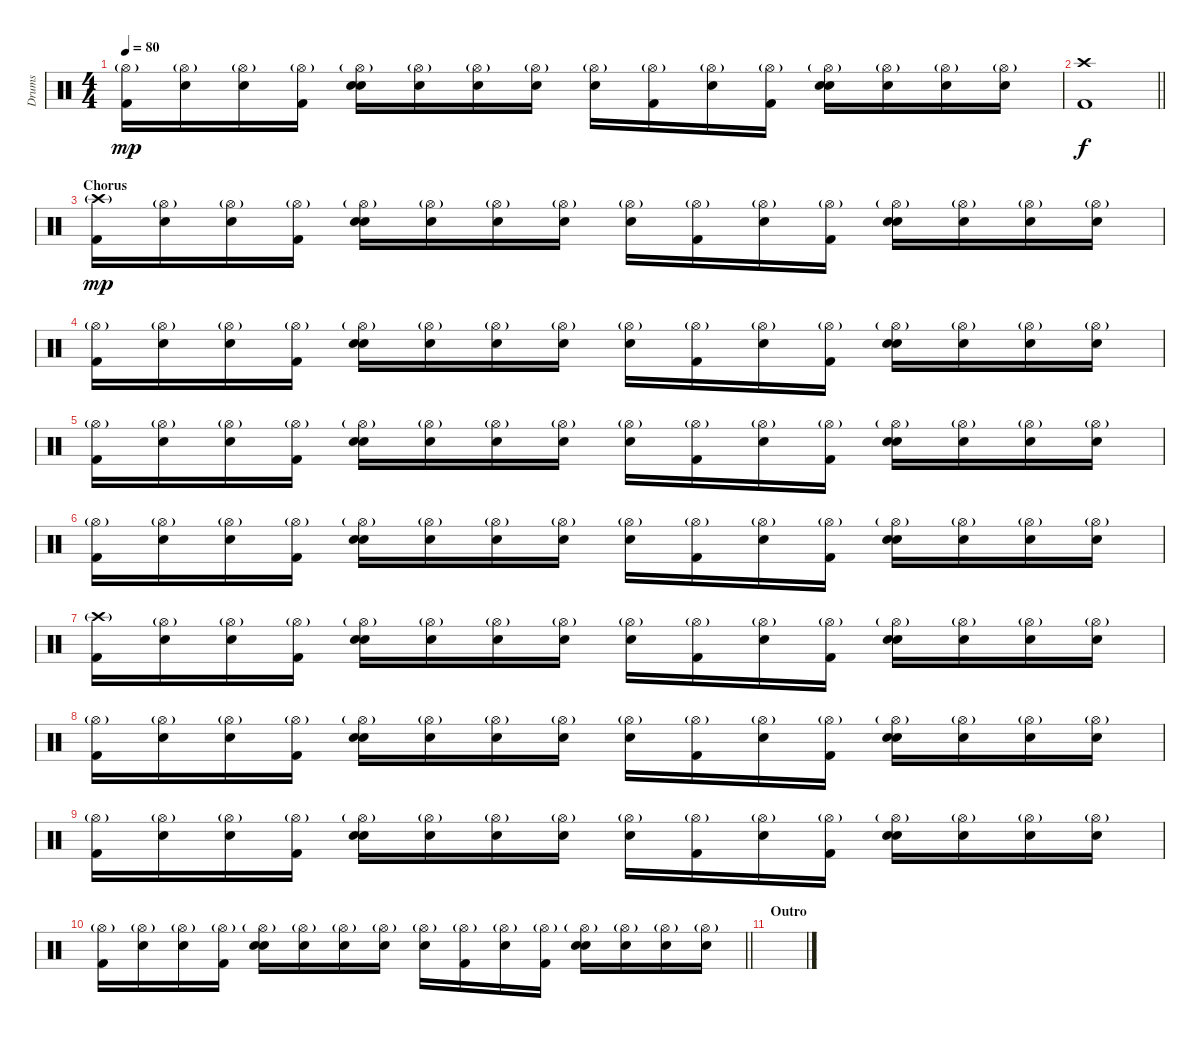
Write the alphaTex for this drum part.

\track ("Drums" "Drums") {instrument percussion}
\staff {score}
\articulation defaults
\ts (4 4)
\tempo 80
\clef neutral
\ks c
("Kick (hit) 2" "Hi-Hat (open)"{g}).16{dy mp} ("Snare (hit)" "Hi-Hat (open)"{g}).16 ("Snare (hit)" "Hi-Hat (open)"{g}).16 ("Kick (hit) 2" "Hi-Hat (open)"{g}).16 ("Snare (hit)" "Electric Snare (hit)" "Hi-Hat (open)"{g}).16 ("Snare (hit)" "Hi-Hat (open)"{g}).16 ("Snare (hit)" "Hi-Hat (open)"{g}).16 ("Snare (hit)" "Hi-Hat (open)"{g}).16 ("Snare (hit)" "Hi-Hat (open)"{g}).16 ("Kick (hit) 2" "Hi-Hat (open)"{g}).16 ("Snare (hit)" "Hi-Hat (open)"{g}).16 ("Kick (hit) 2" "Hi-Hat (open)"{g}).16 ("Snare (hit)" "Electric Snare (hit)" "Hi-Hat (open)"{g}).16 ("Snare (hit)" "Hi-Hat (open)"{g}).16 ("Snare (hit)" "Hi-Hat (open)"{g}).16 ("Snare (hit)" "Hi-Hat (open)"{g}).16 |
\barLineRight lightlight
("Kick (hit) 2" "Crash high (hit)").1{dy f} |
\section ("" "Chorus")
("Kick (hit) 2" "Crash high (hit)"{g}).16{dy mp} ("Snare (hit)" "Hi-Hat (open)"{g}).16 ("Snare (hit)" "Hi-Hat (open)"{g}).16 ("Kick (hit) 2" "Hi-Hat (open)"{g}).16 ("Snare (hit)" "Electric Snare (hit)" "Hi-Hat (open)"{g}).16 ("Snare (hit)" "Hi-Hat (open)"{g}).16 ("Snare (hit)" "Hi-Hat (open)"{g}).16 ("Snare (hit)" "Hi-Hat (open)"{g}).16 ("Snare (hit)" "Hi-Hat (open)"{g}).16 ("Kick (hit) 2" "Hi-Hat (open)"{g}).16 ("Snare (hit)" "Hi-Hat (open)"{g}).16 ("Kick (hit) 2" "Hi-Hat (open)"{g}).16 ("Snare (hit)" "Electric Snare (hit)" "Hi-Hat (open)"{g}).16 ("Snare (hit)" "Hi-Hat (open)"{g}).16 ("Snare (hit)" "Hi-Hat (open)"{g}).16 ("Snare (hit)" "Hi-Hat (open)"{g}).16 |
("Kick (hit) 2" "Hi-Hat (open)"{g}).16 ("Snare (hit)" "Hi-Hat (open)"{g}).16 ("Snare (hit)" "Hi-Hat (open)"{g}).16 ("Kick (hit) 2" "Hi-Hat (open)"{g}).16 ("Snare (hit)" "Electric Snare (hit)" "Hi-Hat (open)"{g}).16 ("Snare (hit)" "Hi-Hat (open)"{g}).16 ("Snare (hit)" "Hi-Hat (open)"{g}).16 ("Snare (hit)" "Hi-Hat (open)"{g}).16 ("Snare (hit)" "Hi-Hat (open)"{g}).16 ("Kick (hit) 2" "Hi-Hat (open)"{g}).16 ("Snare (hit)" "Hi-Hat (open)"{g}).16 ("Kick (hit) 2" "Hi-Hat (open)"{g}).16 ("Snare (hit)" "Electric Snare (hit)" "Hi-Hat (open)"{g}).16 ("Snare (hit)" "Hi-Hat (open)"{g}).16 ("Snare (hit)" "Hi-Hat (open)"{g}).16 ("Snare (hit)" "Hi-Hat (open)"{g}).16 |
("Kick (hit) 2" "Hi-Hat (open)"{g}).16 ("Snare (hit)" "Hi-Hat (open)"{g}).16 ("Snare (hit)" "Hi-Hat (open)"{g}).16 ("Kick (hit) 2" "Hi-Hat (open)"{g}).16 ("Snare (hit)" "Electric Snare (hit)" "Hi-Hat (open)"{g}).16 ("Snare (hit)" "Hi-Hat (open)"{g}).16 ("Snare (hit)" "Hi-Hat (open)"{g}).16 ("Snare (hit)" "Hi-Hat (open)"{g}).16 ("Snare (hit)" "Hi-Hat (open)"{g}).16 ("Kick (hit) 2" "Hi-Hat (open)"{g}).16 ("Snare (hit)" "Hi-Hat (open)"{g}).16 ("Kick (hit) 2" "Hi-Hat (open)"{g}).16 ("Snare (hit)" "Electric Snare (hit)" "Hi-Hat (open)"{g}).16 ("Snare (hit)" "Hi-Hat (open)"{g}).16 ("Snare (hit)" "Hi-Hat (open)"{g}).16 ("Snare (hit)" "Hi-Hat (open)"{g}).16 |
("Kick (hit) 2" "Hi-Hat (open)"{g}).16 ("Snare (hit)" "Hi-Hat (open)"{g}).16 ("Snare (hit)" "Hi-Hat (open)"{g}).16 ("Kick (hit) 2" "Hi-Hat (open)"{g}).16 ("Snare (hit)" "Electric Snare (hit)" "Hi-Hat (open)"{g}).16 ("Snare (hit)" "Hi-Hat (open)"{g}).16 ("Snare (hit)" "Hi-Hat (open)"{g}).16 ("Snare (hit)" "Hi-Hat (open)"{g}).16 ("Snare (hit)" "Hi-Hat (open)"{g}).16 ("Kick (hit) 2" "Hi-Hat (open)"{g}).16 ("Snare (hit)" "Hi-Hat (open)"{g}).16 ("Kick (hit) 2" "Hi-Hat (open)"{g}).16 ("Snare (hit)" "Electric Snare (hit)" "Hi-Hat (open)"{g}).16 ("Snare (hit)" "Hi-Hat (open)"{g}).16 ("Snare (hit)" "Hi-Hat (open)"{g}).16 ("Snare (hit)" "Hi-Hat (open)"{g}).16 |
("Kick (hit) 2" "Crash high (hit)"{g}).16 ("Snare (hit)" "Hi-Hat (open)"{g}).16 ("Snare (hit)" "Hi-Hat (open)"{g}).16 ("Kick (hit) 2" "Hi-Hat (open)"{g}).16 ("Snare (hit)" "Electric Snare (hit)" "Hi-Hat (open)"{g}).16 ("Snare (hit)" "Hi-Hat (open)"{g}).16 ("Snare (hit)" "Hi-Hat (open)"{g}).16 ("Snare (hit)" "Hi-Hat (open)"{g}).16 ("Snare (hit)" "Hi-Hat (open)"{g}).16 ("Kick (hit) 2" "Hi-Hat (open)"{g}).16 ("Snare (hit)" "Hi-Hat (open)"{g}).16 ("Kick (hit) 2" "Hi-Hat (open)"{g}).16 ("Snare (hit)" "Electric Snare (hit)" "Hi-Hat (open)"{g}).16 ("Snare (hit)" "Hi-Hat (open)"{g}).16 ("Snare (hit)" "Hi-Hat (open)"{g}).16 ("Snare (hit)" "Hi-Hat (open)"{g}).16 |
("Kick (hit) 2" "Hi-Hat (open)"{g}).16 ("Snare (hit)" "Hi-Hat (open)"{g}).16 ("Snare (hit)" "Hi-Hat (open)"{g}).16 ("Kick (hit) 2" "Hi-Hat (open)"{g}).16 ("Snare (hit)" "Electric Snare (hit)" "Hi-Hat (open)"{g}).16 ("Snare (hit)" "Hi-Hat (open)"{g}).16 ("Snare (hit)" "Hi-Hat (open)"{g}).16 ("Snare (hit)" "Hi-Hat (open)"{g}).16 ("Snare (hit)" "Hi-Hat (open)"{g}).16 ("Kick (hit) 2" "Hi-Hat (open)"{g}).16 ("Snare (hit)" "Hi-Hat (open)"{g}).16 ("Kick (hit) 2" "Hi-Hat (open)"{g}).16 ("Snare (hit)" "Electric Snare (hit)" "Hi-Hat (open)"{g}).16 ("Snare (hit)" "Hi-Hat (open)"{g}).16 ("Snare (hit)" "Hi-Hat (open)"{g}).16 ("Snare (hit)" "Hi-Hat (open)"{g}).16 |
("Kick (hit) 2" "Hi-Hat (open)"{g}).16 ("Snare (hit)" "Hi-Hat (open)"{g}).16 ("Snare (hit)" "Hi-Hat (open)"{g}).16 ("Kick (hit) 2" "Hi-Hat (open)"{g}).16 ("Snare (hit)" "Electric Snare (hit)" "Hi-Hat (open)"{g}).16 ("Snare (hit)" "Hi-Hat (open)"{g}).16 ("Snare (hit)" "Hi-Hat (open)"{g}).16 ("Snare (hit)" "Hi-Hat (open)"{g}).16 ("Snare (hit)" "Hi-Hat (open)"{g}).16 ("Kick (hit) 2" "Hi-Hat (open)"{g}).16 ("Snare (hit)" "Hi-Hat (open)"{g}).16 ("Kick (hit) 2" "Hi-Hat (open)"{g}).16 ("Snare (hit)" "Electric Snare (hit)" "Hi-Hat (open)"{g}).16 ("Snare (hit)" "Hi-Hat (open)"{g}).16 ("Snare (hit)" "Hi-Hat (open)"{g}).16 ("Snare (hit)" "Hi-Hat (open)"{g}).16 |
\barLineRight lightlight
("Kick (hit) 2" "Hi-Hat (open)"{g}).16 ("Snare (hit)" "Hi-Hat (open)"{g}).16 ("Snare (hit)" "Hi-Hat (open)"{g}).16 ("Kick (hit) 2" "Hi-Hat (open)"{g}).16 ("Snare (hit)" "Electric Snare (hit)" "Hi-Hat (open)"{g}).16 ("Snare (hit)" "Hi-Hat (open)"{g}).16 ("Snare (hit)" "Hi-Hat (open)"{g}).16 ("Snare (hit)" "Hi-Hat (open)"{g}).16 ("Snare (hit)" "Hi-Hat (open)"{g}).16 ("Kick (hit) 2" "Hi-Hat (open)"{g}).16 ("Snare (hit)" "Hi-Hat (open)"{g}).16 ("Kick (hit) 2" "Hi-Hat (open)"{g}).16 ("Snare (hit)" "Electric Snare (hit)" "Hi-Hat (open)"{g}).16 ("Snare (hit)" "Hi-Hat (open)"{g}).16 ("Snare (hit)" "Hi-Hat (open)"{g}).16 ("Snare (hit)" "Hi-Hat (open)"{g}).16 |
\section ("" "Outro")
